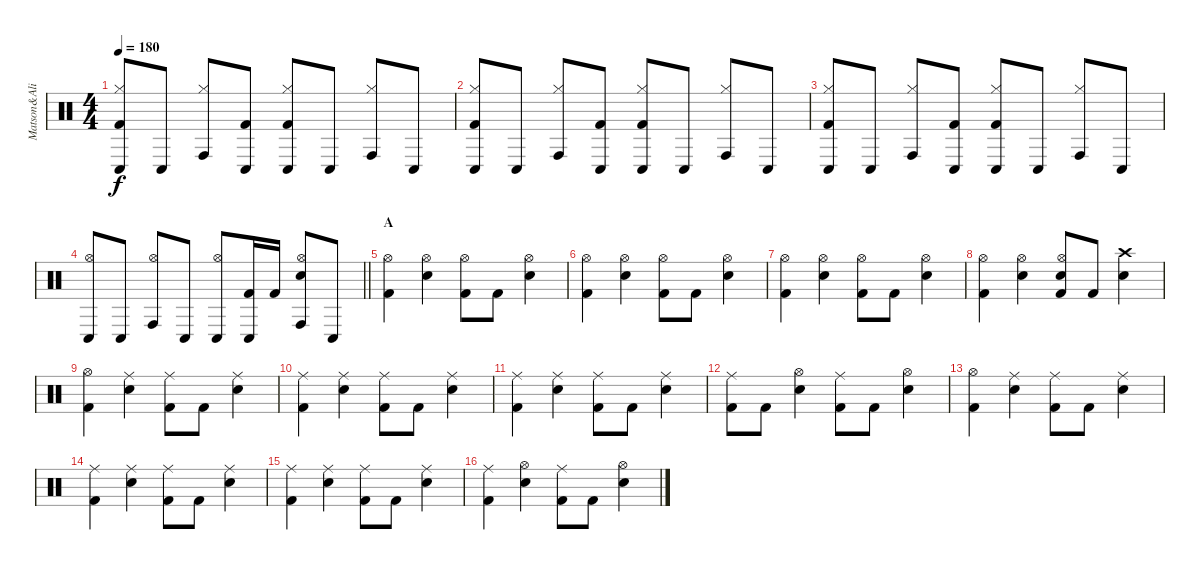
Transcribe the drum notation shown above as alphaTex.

\track ("Matson&Ali" "Matson&Ali") {instrument percussion}
\staff {score}
\articulation defaults
\ts (4 4)
\tempo 180
\clef neutral
\ks c
("Hi-Hat (closed)" "Conga low (hit)" "Kick (hit) 2").8{dy f} "Conga low (hit)".8 ("Hi-Hat (closed)" "Conga high (hit)").8 ("Conga low (hit)" "Kick (hit) 2").8 ("Hi-Hat (closed)" "Conga low (hit)" "Kick (hit) 2").8 "Conga low (hit)".8 ("Hi-Hat (closed)" "Conga high (hit)").8 "Conga low (hit)".8 |
("Hi-Hat (closed)" "Conga low (hit)" "Kick (hit) 2").8 "Conga low (hit)".8 ("Hi-Hat (closed)" "Conga high (hit)").8 ("Conga low (hit)" "Kick (hit) 2").8 ("Hi-Hat (closed)" "Conga low (hit)" "Kick (hit) 2").8 "Conga low (hit)".8 ("Hi-Hat (closed)" "Conga high (hit)").8 "Conga low (hit)".8 |
("Hi-Hat (closed)" "Conga low (hit)" "Kick (hit) 2").8 "Conga low (hit)".8 ("Hi-Hat (closed)" "Conga high (hit)").8 ("Conga low (hit)" "Kick (hit) 2").8 ("Hi-Hat (closed)" "Conga low (hit)" "Kick (hit) 2").8 "Conga low (hit)".8 ("Hi-Hat (closed)" "Conga high (hit)").8 "Conga low (hit)".8 |
\barLineRight lightlight
("Hi-Hat (open)" "Conga low (hit)").8 "Conga low (hit)".8 ("Hi-Hat (open)" "Conga high (hit)").8 "Conga low (hit)".8 ("Hi-Hat (open)" "Conga low (hit)").8 ("Conga low (hit)" "Kick (hit) 2").16 "Kick (hit) 2".16 ("Hi-Hat (open)" "Conga high (hit)" "Snare (hit) 2").8 "Conga low (hit)".8 |
\section ("" "A")
("Hi-Hat (open)" "Kick (hit) 2").4 ("Hi-Hat (open)" "Snare (hit) 2").4 ("Hi-Hat (open)" "Kick (hit) 2").8 "Kick (hit) 2".8 ("Hi-Hat (open)" "Snare (hit) 2").4 |
("Hi-Hat (open)" "Kick (hit) 2").4 ("Hi-Hat (open)" "Snare (hit) 2").4 ("Hi-Hat (open)" "Kick (hit) 2").8 "Kick (hit) 2".8 ("Hi-Hat (open)" "Snare (hit) 2").4 |
("Hi-Hat (open)" "Kick (hit) 2").4 ("Hi-Hat (open)" "Snare (hit) 2").4 ("Hi-Hat (open)" "Kick (hit) 2").8 "Kick (hit) 2".8 ("Hi-Hat (open)" "Snare (hit) 2").4 |
("Hi-Hat (open)" "Kick (hit) 2").4 ("Hi-Hat (open)" "Snare (hit) 2").4 ("Hi-Hat (open)" "Snare (hit) 2" "Kick (hit) 2").8 "Kick (hit) 2".8 ("Crash high (hit)" "Snare (hit) 2").4 |
("Hi-Hat (open)" "Kick (hit) 2").4 ("Ride (middle)" "Snare (hit) 2").4 ("Ride (middle)" "Kick (hit) 2").8 "Kick (hit) 2".8 ("Ride (middle)" "Snare (hit) 2").4 |
("Ride (middle)" "Kick (hit) 2").4 ("Ride (middle)" "Snare (hit) 2").4 ("Ride (middle)" "Kick (hit) 2").8 "Kick (hit) 2".8 ("Ride (middle)" "Snare (hit) 2").4 |
("Ride (middle)" "Kick (hit) 2").4 ("Ride (middle)" "Snare (hit) 2").4 ("Ride (middle)" "Kick (hit) 2").8 "Kick (hit) 2".8 ("Ride (middle)" "Snare (hit) 2").4 |
("Ride (middle)" "Kick (hit) 2").8 "Kick (hit) 2".8 ("Hi-Hat (open)" "Snare (hit) 2").4 ("Ride (middle)" "Kick (hit) 2").8 "Kick (hit) 2".8 ("Hi-Hat (open)" "Snare (hit) 2").4 |
("Hi-Hat (open)" "Kick (hit) 2").4 ("Ride (middle)" "Snare (hit) 2").4 ("Ride (middle)" "Kick (hit) 2").8 "Kick (hit) 2".8 ("Ride (middle)" "Snare (hit) 2").4 |
("Ride (middle)" "Kick (hit) 2").4 ("Ride (middle)" "Snare (hit) 2").4 ("Ride (middle)" "Kick (hit) 2").8 "Kick (hit) 2".8 ("Ride (middle)" "Snare (hit) 2").4 |
("Ride (middle)" "Kick (hit) 2").4 ("Ride (middle)" "Snare (hit) 2").4 ("Ride (middle)" "Kick (hit) 2").8 "Kick (hit) 2".8 ("Ride (middle)" "Snare (hit) 2").4 |
("Ride (middle)" "Kick (hit) 2").4 ("Hi-Hat (open)" "Snare (hit) 2").4 ("Ride (middle)" "Kick (hit) 2").8 "Kick (hit) 2".8 ("Hi-Hat (open)" "Snare (hit) 2").4
